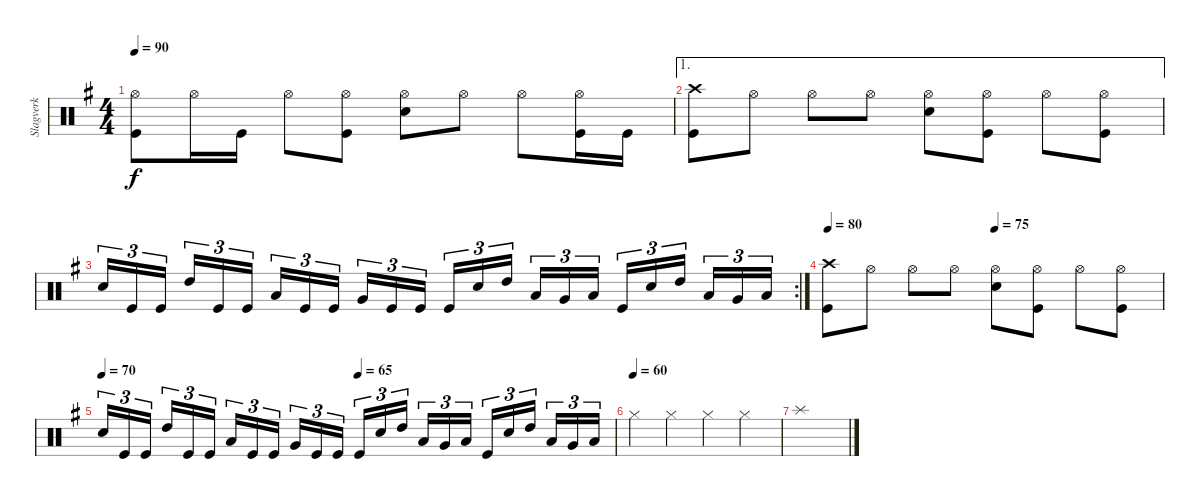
\track ("Slagverk" "Slagverk") {instrument percussion}
\staff {score}
\articulation defaults
\ts (4 4)
\tempo 90
\clef neutral
\ks g
("Hi-Hat (open)" "Kick (hit)").8{dy f} "Hi-Hat (open)".16 "Kick (hit)".16 "Hi-Hat (open)".8 ("Hi-Hat (open)" "Kick (hit)").8 ("Hi-Hat (open)" "Electric Snare (hit)").8 "Hi-Hat (open)".8 "Hi-Hat (open)".8 ("Hi-Hat (open)" "Kick (hit)").16 "Kick (hit)".16 |
\ae 1
("Crash high (hit)" "Kick (hit)").8 "Hi-Hat (open)".8 "Hi-Hat (open)".8 "Hi-Hat (open)".8 ("Hi-Hat (open)" "Electric Snare (hit)").8 ("Hi-Hat (open)" "Kick (hit)").8 "Hi-Hat (open)".8 ("Hi-Hat (open)" "Kick (hit)").8 |
\rc 2 "Electric Snare (hit)".16{tu (3 2)} "Kick (hit)".16{tu (3 2)} "Kick (hit)".16{tu (3 2)} "High Tom (hit)".16{tu (3 2)} "Kick (hit)".16{tu (3 2)} "Kick (hit)".16{tu (3 2)} "Low Tom (hit)".16{tu (3 2)} "Kick (hit)".16{tu (3 2)} "Kick (hit)".16{tu (3 2)} "Very Low Tom (hit)".16{tu (3 2)} "Kick (hit)".16{tu (3 2)} "Kick (hit)".16{tu (3 2)} "Kick (hit)".16{tu (3 2)} "Electric Snare (hit)".16{tu (3 2)} "High Tom (hit)".16{tu (3 2)} "Low Tom (hit)".16{tu (3 2)} "Very Low Tom (hit)".16{tu (3 2)} "Low Floor Tom (hit)".16{tu (3 2)} "Kick (hit)".16{tu (3 2)} "Electric Snare (hit)".16{tu (3 2)} "High Tom (hit)".16{tu (3 2)} "Low Tom (hit)".16{tu (3 2)} "Very Low Tom (hit)".16{tu (3 2)} "Low Floor Tom (hit)".16{tu (3 2)}
|
\tempo 80
\tempo (75 0.5)
("Crash high (hit)" "Kick (hit)").8 "Hi-Hat (open)".8 "Hi-Hat (open)".8 "Hi-Hat (open)".8 ("Hi-Hat (open)" "Electric Snare (hit)").8 ("Hi-Hat (open)" "Kick (hit)").8 "Hi-Hat (open)".8 ("Hi-Hat (open)" "Kick (hit)").8 |
\tempo 70
\tempo (65 0.5)
"Electric Snare (hit)".16{tu (3 2)} "Kick (hit)".16{tu (3 2)} "Kick (hit)".16{tu (3 2)} "High Tom (hit)".16{tu (3 2)} "Kick (hit)".16{tu (3 2)} "Kick (hit)".16{tu (3 2)} "Low Tom (hit)".16{tu (3 2)} "Kick (hit)".16{tu (3 2)} "Kick (hit)".16{tu (3 2)} "Very Low Tom (hit)".16{tu (3 2)} "Kick (hit)".16{tu (3 2)} "Kick (hit)".16{tu (3 2)} "Kick (hit)".16{tu (3 2)} "Electric Snare (hit)".16{tu (3 2)} "High Tom (hit)".16{tu (3 2)} "Low Tom (hit)".16{tu (3 2)} "Very Low Tom (hit)".16{tu (3 2)} "Low Floor Tom (hit)".16{tu (3 2)} "Kick (hit)".16{tu (3 2)} "Electric Snare (hit)".16{tu (3 2)} "High Tom (hit)".16{tu (3 2)} "Low Tom (hit)".16{tu (3 2)} "Very Low Tom (hit)".16{tu (3 2)} "Low Floor Tom (hit)".16{tu (3 2)} |
\tempo (60)
"Hi-Hat (closed)".4 "Hi-Hat (closed)".4 "Hi-Hat (closed)".4 "Hi-Hat (closed)".4 |
"Splash (hit)".1
